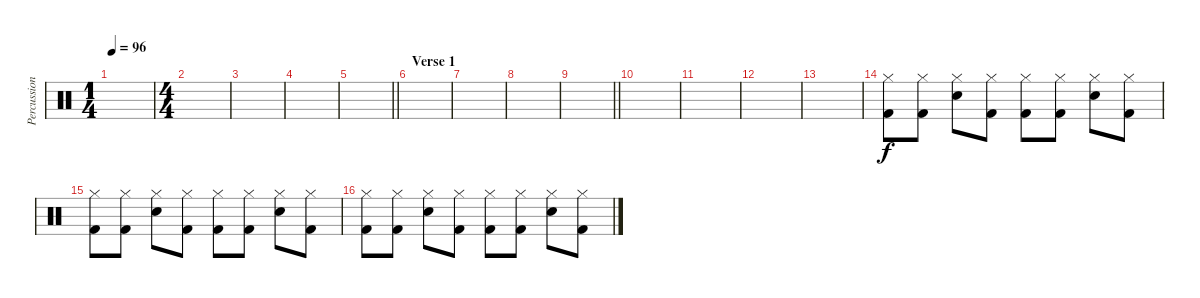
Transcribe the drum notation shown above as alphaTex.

\track ("Percussion" "Percussion") {instrument percussion}
\staff {score}
\articulation defaults
\ts (1 4)
\tempo 96
\clef neutral
\ks c
|
\ts (4 4)
|
|
|
\barLineRight lightlight
|
\section ("" "Verse 1")
|
|
|
\barLineRight lightlight
|
|
|
|
|
("Hi-Hat (closed)" "Kick (hit) 2").8 ("Hi-Hat (closed)" "Kick (hit) 2").8 ("Hi-Hat (closed)" "Electric Snare (hit)").8 ("Hi-Hat (closed)" "Kick (hit) 2").8 ("Hi-Hat (closed)" "Kick (hit) 2").8 ("Hi-Hat (closed)" "Kick (hit) 2").8 ("Hi-Hat (closed)" "Electric Snare (hit)").8 ("Hi-Hat (closed)" "Kick (hit) 2").8 |
("Hi-Hat (closed)" "Kick (hit) 2").8 ("Hi-Hat (closed)" "Kick (hit) 2").8 ("Hi-Hat (closed)" "Electric Snare (hit)").8 ("Hi-Hat (closed)" "Kick (hit) 2").8 ("Hi-Hat (closed)" "Kick (hit) 2").8 ("Hi-Hat (closed)" "Kick (hit) 2").8 ("Hi-Hat (closed)" "Electric Snare (hit)").8 ("Hi-Hat (closed)" "Kick (hit) 2").8 |
("Hi-Hat (closed)" "Kick (hit) 2").8 ("Hi-Hat (closed)" "Kick (hit) 2").8 ("Hi-Hat (closed)" "Electric Snare (hit)").8 ("Hi-Hat (closed)" "Kick (hit) 2").8 ("Hi-Hat (closed)" "Kick (hit) 2").8 ("Hi-Hat (closed)" "Kick (hit) 2").8 ("Hi-Hat (closed)" "Electric Snare (hit)").8 ("Hi-Hat (closed)" "Kick (hit) 2").8
